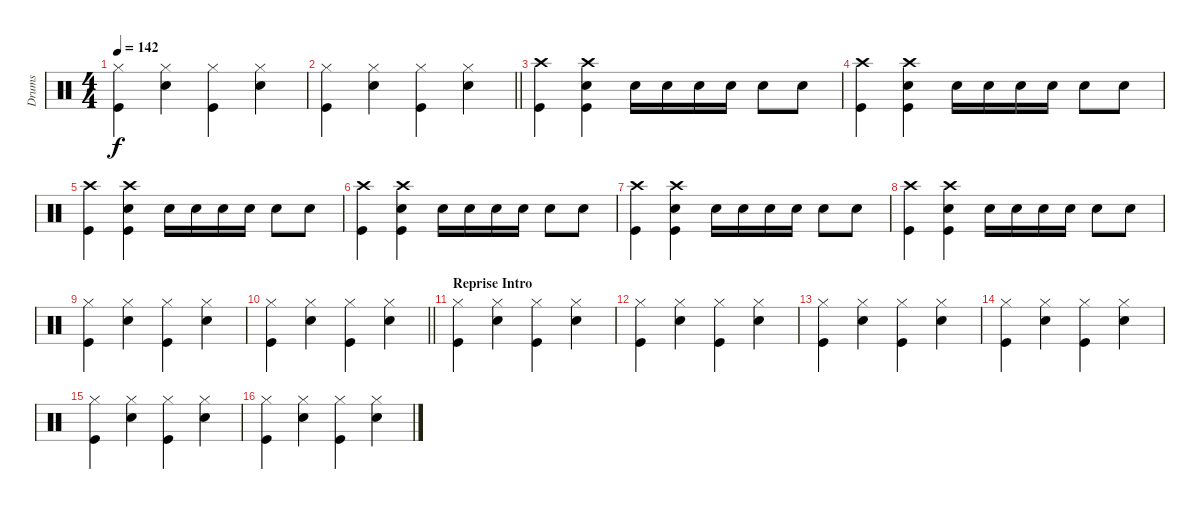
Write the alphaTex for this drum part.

\track ("Drums" "Drums") {instrument percussion}
\staff {score}
\articulation defaults
\ts (4 4)
\tempo 142
\clef neutral
\ks c
("Hi-Hat (closed)" "Kick (hit)").4{dy f} ("Hi-Hat (closed)" "Snare (hit) 2").4 ("Hi-Hat (closed)" "Kick (hit)").4 ("Hi-Hat (closed)" "Snare (hit) 2").4 |
\barLineRight lightlight
("Hi-Hat (closed)" "Kick (hit)").4 ("Hi-Hat (closed)" "Snare (hit) 2").4 ("Hi-Hat (closed)" "Kick (hit)").4 ("Hi-Hat (closed)" "Snare (hit) 2").4 |
("Crash high (hit)" "Kick (hit)").4 ("Crash high (hit)" "Snare (hit) 2" "Kick (hit)").4 "Snare (hit) 2".16 "Snare (hit) 2".16 "Snare (hit) 2".16 "Snare (hit) 2".16 "Snare (hit) 2".8 "Snare (hit) 2".8 |
("Crash high (hit)" "Kick (hit)").4 ("Crash high (hit)" "Snare (hit) 2" "Kick (hit)").4 "Snare (hit) 2".16 "Snare (hit) 2".16 "Snare (hit) 2".16 "Snare (hit) 2".16 "Snare (hit) 2".8 "Snare (hit) 2".8 |
("Crash high (hit)" "Kick (hit)").4 ("Crash high (hit)" "Snare (hit) 2" "Kick (hit)").4 "Snare (hit) 2".16 "Snare (hit) 2".16 "Snare (hit) 2".16 "Snare (hit) 2".16 "Snare (hit) 2".8 "Snare (hit) 2".8 |
("Crash high (hit)" "Kick (hit)").4 ("Crash high (hit)" "Snare (hit) 2" "Kick (hit)").4 "Snare (hit) 2".16 "Snare (hit) 2".16 "Snare (hit) 2".16 "Snare (hit) 2".16 "Snare (hit) 2".8 "Snare (hit) 2".8 |
("Crash high (hit)" "Kick (hit)").4 ("Crash high (hit)" "Snare (hit) 2" "Kick (hit)").4 "Snare (hit) 2".16 "Snare (hit) 2".16 "Snare (hit) 2".16 "Snare (hit) 2".16 "Snare (hit) 2".8 "Snare (hit) 2".8 |
("Crash high (hit)" "Kick (hit)").4 ("Crash high (hit)" "Snare (hit) 2" "Kick (hit)").4 "Snare (hit) 2".16 "Snare (hit) 2".16 "Snare (hit) 2".16 "Snare (hit) 2".16 "Snare (hit) 2".8 "Snare (hit) 2".8 |
("Hi-Hat (closed)" "Kick (hit)").4 ("Hi-Hat (closed)" "Snare (hit) 2").4 ("Hi-Hat (closed)" "Kick (hit)").4 ("Hi-Hat (closed)" "Snare (hit) 2").4 |
\barLineRight lightlight
("Hi-Hat (closed)" "Kick (hit)").4 ("Hi-Hat (closed)" "Snare (hit) 2").4 ("Hi-Hat (closed)" "Kick (hit)").4 ("Hi-Hat (closed)" "Snare (hit) 2").4 |
\section ("" "Reprise Intro")
("Hi-Hat (closed)" "Kick (hit)").4 ("Hi-Hat (closed)" "Snare (hit) 2").4 ("Hi-Hat (closed)" "Kick (hit)").4 ("Hi-Hat (closed)" "Snare (hit) 2").4 |
("Hi-Hat (closed)" "Kick (hit)").4 ("Hi-Hat (closed)" "Snare (hit) 2").4 ("Hi-Hat (closed)" "Kick (hit)").4 ("Hi-Hat (closed)" "Snare (hit) 2").4 |
("Hi-Hat (closed)" "Kick (hit)").4 ("Hi-Hat (closed)" "Snare (hit) 2").4 ("Hi-Hat (closed)" "Kick (hit)").4 ("Hi-Hat (closed)" "Snare (hit) 2").4 |
("Hi-Hat (closed)" "Kick (hit)").4 ("Hi-Hat (closed)" "Snare (hit) 2").4 ("Hi-Hat (closed)" "Kick (hit)").4 ("Hi-Hat (closed)" "Snare (hit) 2").4 |
("Hi-Hat (closed)" "Kick (hit)").4 ("Hi-Hat (closed)" "Snare (hit) 2").4 ("Hi-Hat (closed)" "Kick (hit)").4 ("Hi-Hat (closed)" "Snare (hit) 2").4 |
("Hi-Hat (closed)" "Kick (hit)").4 ("Hi-Hat (closed)" "Snare (hit) 2").4 ("Hi-Hat (closed)" "Kick (hit)").4 ("Hi-Hat (closed)" "Snare (hit) 2").4
